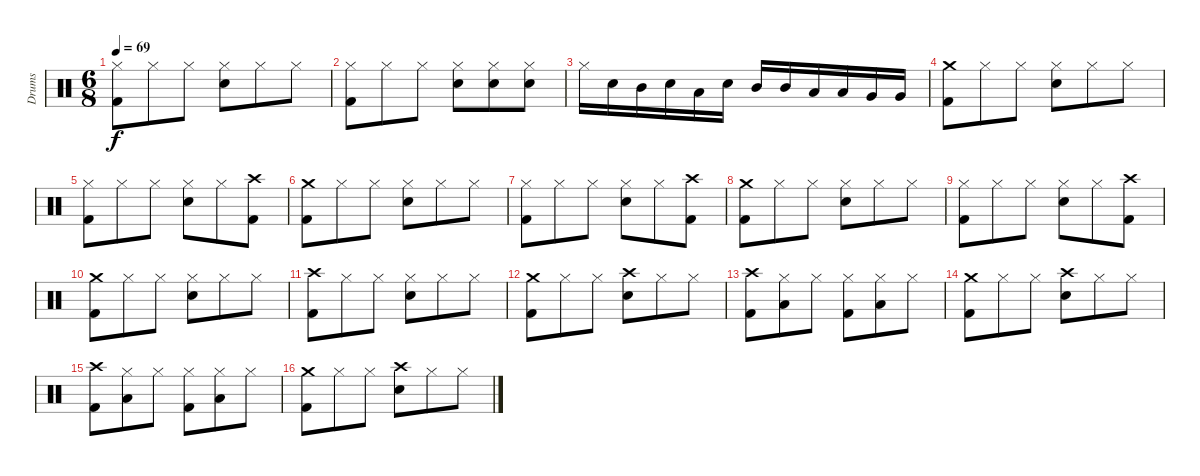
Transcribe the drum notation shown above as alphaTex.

\track ("Drums" "Drums") {instrument percussion}
\staff {score}
\articulation defaults
\ts (6 8)
\tempo 69
\clef neutral
\ks c
("Hi-Hat (closed)" "Kick (hit) 2").8{dy f} "Hi-Hat (closed)".8 "Hi-Hat (closed)".8 ("Hi-Hat (closed)" "Snare (hit) 2").8 "Hi-Hat (closed)".8 "Hi-Hat (closed)".8 |
("Hi-Hat (closed)" "Kick (hit) 2").8 "Hi-Hat (closed)".8 "Hi-Hat (closed)".8 ("Hi-Hat (closed)" "Snare (hit) 2").8 ("Hi-Hat (closed)" "Snare (hit) 2").8 ("Hi-Hat (closed)" "Snare (hit) 2").8 |
"Hi-Hat (closed)".16 "Snare (hit) 2".16 "Mid Tom (hit)".16 "Snare (hit) 2".16 "Low Tom (hit)".16 "Snare (hit) 2".16 "Mid Tom (hit)".16 "Mid Tom (hit)".16 "Low Tom (hit)".16 "Low Tom (hit)".16 "Very Low Tom (hit)".16 "Very Low Tom (hit)".16 |
("Crash medium (hit)" "Kick (hit) 2").8 "Hi-Hat (closed)".8 "Hi-Hat (closed)".8 ("Hi-Hat (closed)" "Snare (hit) 2").8 "Hi-Hat (closed)".8 "Hi-Hat (closed)".8 |
("Hi-Hat (closed)" "Kick (hit) 2").8 "Hi-Hat (closed)".8 "Hi-Hat (closed)".8 ("Hi-Hat (closed)" "Snare (hit) 2").8 "Hi-Hat (closed)".8 ("Crash high (hit)" "Kick (hit) 2").8 |
("Crash medium (hit)" "Kick (hit) 2").8 "Hi-Hat (closed)".8 "Hi-Hat (closed)".8 ("Hi-Hat (closed)" "Snare (hit) 2").8 "Hi-Hat (closed)".8 "Hi-Hat (closed)".8 |
("Hi-Hat (closed)" "Kick (hit) 2").8 "Hi-Hat (closed)".8 "Hi-Hat (closed)".8 ("Hi-Hat (closed)" "Snare (hit) 2").8 "Hi-Hat (closed)".8 ("Crash high (hit)" "Kick (hit) 2").8 |
("Crash medium (hit)" "Kick (hit) 2").8 "Hi-Hat (closed)".8 "Hi-Hat (closed)".8 ("Hi-Hat (closed)" "Snare (hit) 2").8 "Hi-Hat (closed)".8 "Hi-Hat (closed)".8 |
("Hi-Hat (closed)" "Kick (hit) 2").8 "Hi-Hat (closed)".8 "Hi-Hat (closed)".8 ("Hi-Hat (closed)" "Snare (hit) 2").8 "Hi-Hat (closed)".8 ("Crash high (hit)" "Kick (hit) 2").8 |
("Crash medium (hit)" "Kick (hit) 2").8 "Hi-Hat (closed)".8 "Hi-Hat (closed)".8 ("Hi-Hat (closed)" "Snare (hit) 2").8 "Hi-Hat (closed)".8 "Hi-Hat (closed)".8 |
("Crash high (hit)" "Kick (hit) 2").8 "Hi-Hat (closed)".8 "Hi-Hat (closed)".8 ("Hi-Hat (closed)" "Snare (hit) 2").8 "Hi-Hat (closed)".8 "Hi-Hat (closed)".8 |
("Crash medium (hit)" "Kick (hit) 2").8 "Hi-Hat (closed)".8 "Hi-Hat (closed)".8 ("Crash high (hit)" "Snare (hit) 2").8 "Hi-Hat (closed)".8 "Hi-Hat (closed)".8 |
("Crash high (hit)" "Kick (hit) 2").8 ("Hi-Hat (closed)" "Low Tom (hit)").8 "Hi-Hat (closed)".8 ("Hi-Hat (closed)" "Kick (hit) 2").8 ("Hi-Hat (closed)" "Low Tom (hit)").8 "Hi-Hat (closed)".8 |
("Crash medium (hit)" "Kick (hit) 2").8 "Hi-Hat (closed)".8 "Hi-Hat (closed)".8 ("Crash high (hit)" "Snare (hit) 2").8 "Hi-Hat (closed)".8 "Hi-Hat (closed)".8 |
("Crash high (hit)" "Kick (hit) 2").8 ("Hi-Hat (closed)" "Low Tom (hit)").8 "Hi-Hat (closed)".8 ("Hi-Hat (closed)" "Kick (hit) 2").8 ("Hi-Hat (closed)" "Low Tom (hit)").8 "Hi-Hat (closed)".8 |
("Crash medium (hit)" "Kick (hit) 2").8 "Hi-Hat (closed)".8 "Hi-Hat (closed)".8 ("Crash high (hit)" "Snare (hit) 2").8 "Hi-Hat (closed)".8 "Hi-Hat (closed)".8
